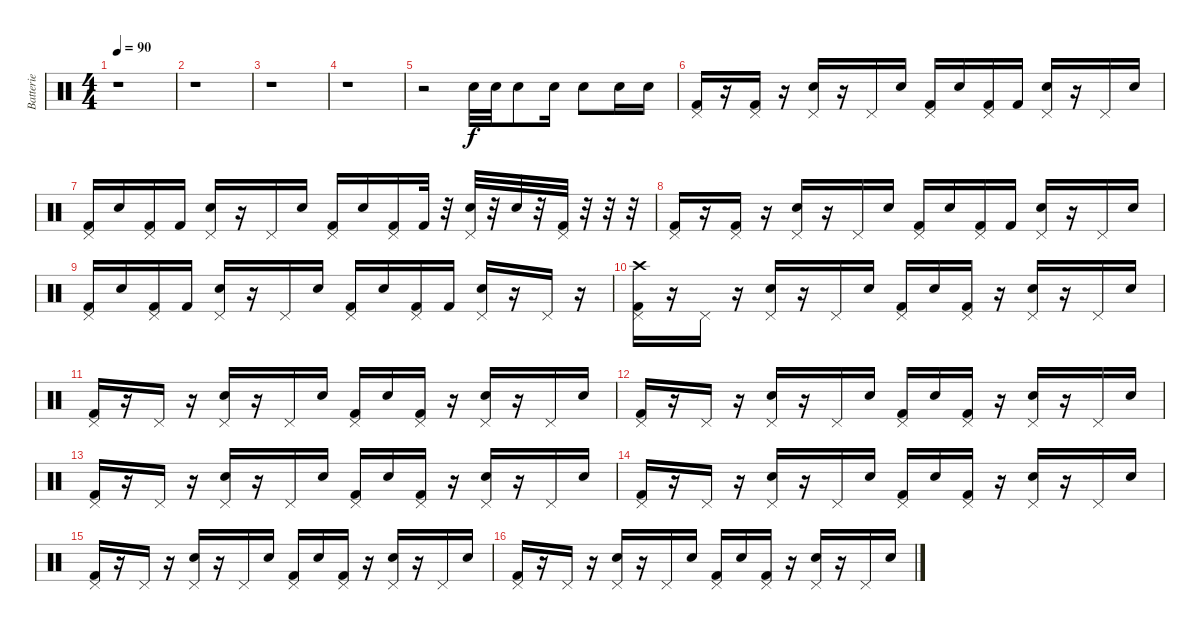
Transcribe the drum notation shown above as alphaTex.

\track ("Batterie" "Batterie") {instrument percussion}
\staff {score}
\articulation defaults
\ts (4 4)
\tempo 90
\clef neutral
\ks c
r.1{dy f} |
r.1 |
r.1 |
r.1 |
r.2 "Electric Snare (hit)".32 "Electric Snare (hit)".32 "Electric Snare (hit)".8 "Electric Snare (hit)".16 "Electric Snare (hit)".8 "Electric Snare (hit)".16 "Electric Snare (hit)".16 |
("Pedal Hi-Hat (hit)" "Kick (hit) 2").16 r.16 ("Pedal Hi-Hat (hit)" "Kick (hit) 2").16 r.16 ("Pedal Hi-Hat (hit)" "Electric Snare (hit)").16 r.16 "Pedal Hi-Hat (hit)".16 "Electric Snare (hit)".16 ("Pedal Hi-Hat (hit)" "Kick (hit) 2").16 "Electric Snare (hit)".16 ("Pedal Hi-Hat (hit)" "Kick (hit) 2").16 "Kick (hit) 2".16 ("Pedal Hi-Hat (hit)" "Electric Snare (hit)").16 r.16 "Pedal Hi-Hat (hit)".16 "Electric Snare (hit)".16 |
("Pedal Hi-Hat (hit)" "Kick (hit) 2").16 "Electric Snare (hit)".16 ("Pedal Hi-Hat (hit)" "Kick (hit) 2").16 "Kick (hit) 2".16 ("Pedal Hi-Hat (hit)" "Electric Snare (hit)").16 r.16 "Pedal Hi-Hat (hit)".16 "Electric Snare (hit)".16 ("Pedal Hi-Hat (hit)" "Kick (hit) 2").16 "Electric Snare (hit)".16 ("Pedal Hi-Hat (hit)" "Kick (hit) 2").16 "Kick (hit) 2".32 r.32 ("Pedal Hi-Hat (hit)" "Electric Snare (hit)").32 r.32 "Electric Snare (hit)".32 r.32 ("Pedal Hi-Hat (hit)" "Kick (hit) 2").32 r.32 r.32 r.32 |
("Pedal Hi-Hat (hit)" "Kick (hit) 2").16 r.16 ("Pedal Hi-Hat (hit)" "Kick (hit) 2").16 r.16 ("Pedal Hi-Hat (hit)" "Electric Snare (hit)").16 r.16 "Pedal Hi-Hat (hit)".16 "Electric Snare (hit)".16 ("Pedal Hi-Hat (hit)" "Kick (hit) 2").16 "Electric Snare (hit)".16 ("Pedal Hi-Hat (hit)" "Kick (hit) 2").16 "Kick (hit) 2".16 ("Pedal Hi-Hat (hit)" "Electric Snare (hit)").16 r.16 "Pedal Hi-Hat (hit)".16 "Electric Snare (hit)".16 |
("Pedal Hi-Hat (hit)" "Kick (hit) 2").16 "Electric Snare (hit)".16 ("Pedal Hi-Hat (hit)" "Kick (hit) 2").16 "Kick (hit) 2".16 ("Pedal Hi-Hat (hit)" "Electric Snare (hit)").16 r.16 "Pedal Hi-Hat (hit)".16 "Electric Snare (hit)".16 ("Pedal Hi-Hat (hit)" "Kick (hit) 2").16 "Electric Snare (hit)".16 ("Pedal Hi-Hat (hit)" "Kick (hit) 2").16 "Kick (hit) 2".16 ("Pedal Hi-Hat (hit)" "Electric Snare (hit)").16 r.16 "Pedal Hi-Hat (hit)".16 r.16 |
("Pedal Hi-Hat (hit)" "Crash high (hit)" "Kick (hit) 2").16 r.16 "Pedal Hi-Hat (hit)".16 r.16 ("Pedal Hi-Hat (hit)" "Electric Snare (hit)").16 r.16 "Pedal Hi-Hat (hit)".16 "Electric Snare (hit)".16 ("Pedal Hi-Hat (hit)" "Kick (hit) 2").16 "Electric Snare (hit)".16 ("Pedal Hi-Hat (hit)" "Kick (hit) 2").16 r.16 ("Pedal Hi-Hat (hit)" "Electric Snare (hit)").16 r.16 "Pedal Hi-Hat (hit)".16 "Electric Snare (hit)".16 |
("Pedal Hi-Hat (hit)" "Kick (hit) 2").16 r.16 "Pedal Hi-Hat (hit)".16 r.16 ("Pedal Hi-Hat (hit)" "Electric Snare (hit)").16 r.16 "Pedal Hi-Hat (hit)".16 "Electric Snare (hit)".16 ("Pedal Hi-Hat (hit)" "Kick (hit) 2").16 "Electric Snare (hit)".16 ("Pedal Hi-Hat (hit)" "Kick (hit) 2").16 r.16 ("Pedal Hi-Hat (hit)" "Electric Snare (hit)").16 r.16 "Pedal Hi-Hat (hit)".16 "Electric Snare (hit)".16 |
("Pedal Hi-Hat (hit)" "Kick (hit) 2").16 r.16 "Pedal Hi-Hat (hit)".16 r.16 ("Pedal Hi-Hat (hit)" "Electric Snare (hit)").16 r.16 "Pedal Hi-Hat (hit)".16 "Electric Snare (hit)".16 ("Pedal Hi-Hat (hit)" "Kick (hit) 2").16 "Electric Snare (hit)".16 ("Pedal Hi-Hat (hit)" "Kick (hit) 2").16 r.16 ("Pedal Hi-Hat (hit)" "Electric Snare (hit)").16 r.16 "Pedal Hi-Hat (hit)".16 "Electric Snare (hit)".16 |
("Pedal Hi-Hat (hit)" "Kick (hit) 2").16 r.16 "Pedal Hi-Hat (hit)".16 r.16 ("Pedal Hi-Hat (hit)" "Electric Snare (hit)").16 r.16 "Pedal Hi-Hat (hit)".16 "Electric Snare (hit)".16 ("Pedal Hi-Hat (hit)" "Kick (hit) 2").16 "Electric Snare (hit)".16 ("Pedal Hi-Hat (hit)" "Kick (hit) 2").16 r.16 ("Pedal Hi-Hat (hit)" "Electric Snare (hit)").16 r.16 "Pedal Hi-Hat (hit)".16 "Electric Snare (hit)".16 |
("Pedal Hi-Hat (hit)" "Kick (hit) 2").16 r.16 "Pedal Hi-Hat (hit)".16 r.16 ("Pedal Hi-Hat (hit)" "Electric Snare (hit)").16 r.16 "Pedal Hi-Hat (hit)".16 "Electric Snare (hit)".16 ("Pedal Hi-Hat (hit)" "Kick (hit) 2").16 "Electric Snare (hit)".16 ("Pedal Hi-Hat (hit)" "Kick (hit) 2").16 r.16 ("Pedal Hi-Hat (hit)" "Electric Snare (hit)").16 r.16 "Pedal Hi-Hat (hit)".16 "Electric Snare (hit)".16 |
("Pedal Hi-Hat (hit)" "Kick (hit) 2").16 r.16 "Pedal Hi-Hat (hit)".16 r.16 ("Pedal Hi-Hat (hit)" "Electric Snare (hit)").16 r.16 "Pedal Hi-Hat (hit)".16 "Electric Snare (hit)".16 ("Pedal Hi-Hat (hit)" "Kick (hit) 2").16 "Electric Snare (hit)".16 ("Pedal Hi-Hat (hit)" "Kick (hit) 2").16 r.16 ("Pedal Hi-Hat (hit)" "Electric Snare (hit)").16 r.16 "Pedal Hi-Hat (hit)".16 "Electric Snare (hit)".16 |
("Pedal Hi-Hat (hit)" "Kick (hit) 2").16 r.16 "Pedal Hi-Hat (hit)".16 r.16 ("Pedal Hi-Hat (hit)" "Electric Snare (hit)").16 r.16 "Pedal Hi-Hat (hit)".16 "Electric Snare (hit)".16 ("Pedal Hi-Hat (hit)" "Kick (hit) 2").16 "Electric Snare (hit)".16 ("Pedal Hi-Hat (hit)" "Kick (hit) 2").16 r.16 ("Pedal Hi-Hat (hit)" "Electric Snare (hit)").16 r.16 "Pedal Hi-Hat (hit)".16 "Electric Snare (hit)".16
